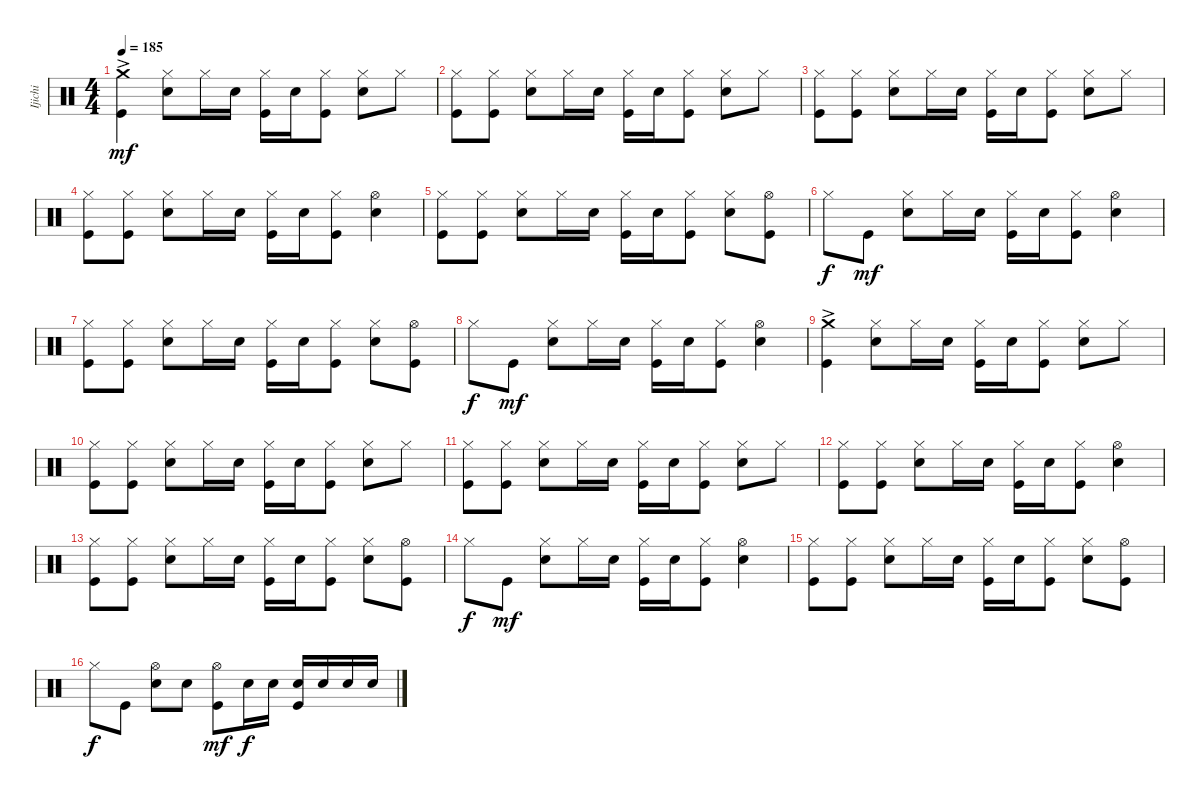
\track ("Ijichi" "Ijichi") {instrument percussion}
\staff {score}
\articulation defaults
\ts (4 4)
\tempo 185
\clef neutral
\ks c
("Crash medium (hit)"{ac} "Kick (hit)").4{dy mf} ("Hi-Hat (closed)" "Snare (hit) 2").8 "Hi-Hat (closed)".16 "Snare (hit) 2".16 ("Hi-Hat (closed)" "Kick (hit)").16 "Snare (hit) 2".16 ("Hi-Hat (closed)" "Kick (hit)").8 ("Hi-Hat (closed)" "Snare (hit) 2").8 "Hi-Hat (closed)".8 |
("Hi-Hat (closed)" "Kick (hit)").8 ("Hi-Hat (closed)" "Kick (hit)").8 ("Hi-Hat (closed)" "Snare (hit) 2").8 "Hi-Hat (closed)".16 "Snare (hit) 2".16 ("Hi-Hat (closed)" "Kick (hit)").16 "Snare (hit) 2".16 ("Hi-Hat (closed)" "Kick (hit)").8 ("Hi-Hat (closed)" "Snare (hit) 2").8 "Hi-Hat (closed)".8 |
("Hi-Hat (closed)" "Kick (hit)").8 ("Hi-Hat (closed)" "Kick (hit)").8 ("Hi-Hat (closed)" "Snare (hit) 2").8 "Hi-Hat (closed)".16 "Snare (hit) 2".16 ("Hi-Hat (closed)" "Kick (hit)").16 "Snare (hit) 2".16 ("Hi-Hat (closed)" "Kick (hit)").8 ("Hi-Hat (closed)" "Snare (hit) 2").8 "Hi-Hat (closed)".8 |
("Hi-Hat (closed)" "Kick (hit)").8 ("Hi-Hat (closed)" "Kick (hit)").8 ("Hi-Hat (closed)" "Snare (hit) 2").8 "Hi-Hat (closed)".16 "Snare (hit) 2".16 ("Hi-Hat (closed)" "Kick (hit)").16 "Snare (hit) 2".16 ("Hi-Hat (closed)" "Kick (hit)").8 ("Hi-Hat (open)" "Snare (hit) 2").4 |
("Hi-Hat (closed)" "Kick (hit)").8 ("Hi-Hat (closed)" "Kick (hit)").8 ("Hi-Hat (closed)" "Snare (hit) 2").8 "Hi-Hat (closed)".16 "Snare (hit) 2".16 ("Hi-Hat (closed)" "Kick (hit)").16 "Snare (hit) 2".16 ("Hi-Hat (closed)" "Kick (hit)").8 ("Hi-Hat (closed)" "Snare (hit) 2").8 ("Hi-Hat (open)" "Kick (hit)").8 |
"Hi-Hat (closed)".8{dy f} "Kick (hit)".8{dy mf} ("Hi-Hat (closed)" "Snare (hit) 2").8 "Hi-Hat (closed)".16 "Snare (hit) 2".16 ("Hi-Hat (closed)" "Kick (hit)").16 "Snare (hit) 2".16 ("Hi-Hat (closed)" "Kick (hit)").8 ("Hi-Hat (open)" "Snare (hit) 2").4 |
("Hi-Hat (closed)" "Kick (hit)").8 ("Hi-Hat (closed)" "Kick (hit)").8 ("Hi-Hat (closed)" "Snare (hit) 2").8 "Hi-Hat (closed)".16 "Snare (hit) 2".16 ("Hi-Hat (closed)" "Kick (hit)").16 "Snare (hit) 2".16 ("Hi-Hat (closed)" "Kick (hit)").8 ("Hi-Hat (closed)" "Snare (hit) 2").8 ("Hi-Hat (open)" "Kick (hit)").8 |
"Hi-Hat (closed)".8{dy f} "Kick (hit)".8{dy mf} ("Hi-Hat (closed)" "Snare (hit) 2").8 "Hi-Hat (closed)".16 "Snare (hit) 2".16 ("Hi-Hat (closed)" "Kick (hit)").16 "Snare (hit) 2".16 ("Hi-Hat (closed)" "Kick (hit)").8 ("Hi-Hat (open)" "Snare (hit) 2").4 |
("Crash medium (hit)"{ac} "Kick (hit)").4 ("Hi-Hat (closed)" "Snare (hit) 2").8 "Hi-Hat (closed)".16 "Snare (hit) 2".16 ("Hi-Hat (closed)" "Kick (hit)").16 "Snare (hit) 2".16 ("Hi-Hat (closed)" "Kick (hit)").8 ("Hi-Hat (closed)" "Snare (hit) 2").8 "Hi-Hat (closed)".8 |
("Hi-Hat (closed)" "Kick (hit)").8 ("Hi-Hat (closed)" "Kick (hit)").8 ("Hi-Hat (closed)" "Snare (hit) 2").8 "Hi-Hat (closed)".16 "Snare (hit) 2".16 ("Hi-Hat (closed)" "Kick (hit)").16 "Snare (hit) 2".16 ("Hi-Hat (closed)" "Kick (hit)").8 ("Hi-Hat (closed)" "Snare (hit) 2").8 "Hi-Hat (closed)".8 |
("Hi-Hat (closed)" "Kick (hit)").8 ("Hi-Hat (closed)" "Kick (hit)").8 ("Hi-Hat (closed)" "Snare (hit) 2").8 "Hi-Hat (closed)".16 "Snare (hit) 2".16 ("Hi-Hat (closed)" "Kick (hit)").16 "Snare (hit) 2".16 ("Hi-Hat (closed)" "Kick (hit)").8 ("Hi-Hat (closed)" "Snare (hit) 2").8 "Hi-Hat (closed)".8 |
("Hi-Hat (closed)" "Kick (hit)").8 ("Hi-Hat (closed)" "Kick (hit)").8 ("Hi-Hat (closed)" "Snare (hit) 2").8 "Hi-Hat (closed)".16 "Snare (hit) 2".16 ("Hi-Hat (closed)" "Kick (hit)").16 "Snare (hit) 2".16 ("Hi-Hat (closed)" "Kick (hit)").8 ("Hi-Hat (open)" "Snare (hit) 2").4 |
("Hi-Hat (closed)" "Kick (hit)").8 ("Hi-Hat (closed)" "Kick (hit)").8 ("Hi-Hat (closed)" "Snare (hit) 2").8 "Hi-Hat (closed)".16 "Snare (hit) 2".16 ("Hi-Hat (closed)" "Kick (hit)").16 "Snare (hit) 2".16 ("Hi-Hat (closed)" "Kick (hit)").8 ("Hi-Hat (closed)" "Snare (hit) 2").8 ("Hi-Hat (open)" "Kick (hit)").8 |
"Hi-Hat (closed)".8{dy f} "Kick (hit)".8{dy mf} ("Hi-Hat (closed)" "Snare (hit) 2").8 "Hi-Hat (closed)".16 "Snare (hit) 2".16 ("Hi-Hat (closed)" "Kick (hit)").16 "Snare (hit) 2".16 ("Hi-Hat (closed)" "Kick (hit)").8 ("Hi-Hat (open)" "Snare (hit) 2").4 |
("Hi-Hat (closed)" "Kick (hit)").8 ("Hi-Hat (closed)" "Kick (hit)").8 ("Hi-Hat (closed)" "Snare (hit) 2").8 "Hi-Hat (closed)".16 "Snare (hit) 2".16 ("Hi-Hat (closed)" "Kick (hit)").16 "Snare (hit) 2".16 ("Hi-Hat (closed)" "Kick (hit)").8 ("Hi-Hat (closed)" "Snare (hit) 2").8 ("Hi-Hat (open)" "Kick (hit)").8 |
"Hi-Hat (closed)".8{dy f} "Kick (hit)".8 ("Hi-Hat (open)" "Snare (hit) 2").8 "Snare (hit) 2".8 ("Hi-Hat (open)" "Kick (hit)").8{dy mf} "Snare (hit) 2".16{dy f} "Snare (hit) 2".16 ("Snare (hit) 2" "Kick (hit)").16 "Snare (hit) 2".16 "Snare (hit) 2".16 "Snare (hit) 2".16
